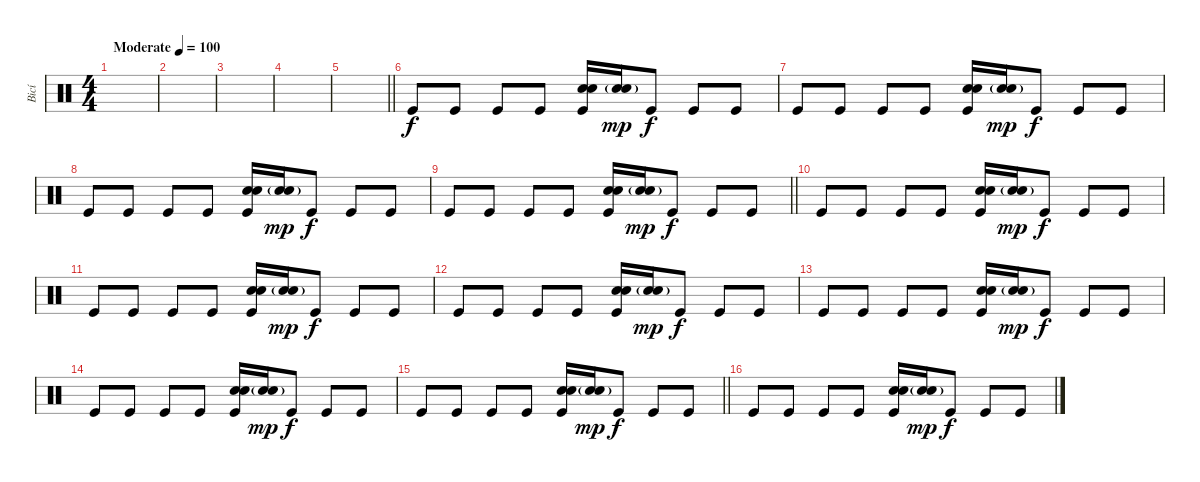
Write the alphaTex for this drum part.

\track ("Bicí" "Bicí") {instrument percussion}
\staff {score}
\articulation defaults
\ts (4 4)
\tempo (100 "Moderate")
\clef neutral
\ks c
|
|
|
|
\barLineRight lightlight
|
\section ("" "")
"Kick (hit)".8 "Kick (hit)".8 "Kick (hit)".8 "Kick (hit)".8 ("Hand Clap (hit)" "Electric Snare (hit)" "Kick (hit)").16 ("Hand Clap (hit)"{g} "Electric Snare (hit)"{g}).16{dy mp} "Kick (hit)".8{dy f} "Kick (hit)".8 "Kick (hit)".8 |
"Kick (hit)".8 "Kick (hit)".8 "Kick (hit)".8 "Kick (hit)".8 ("Hand Clap (hit)" "Electric Snare (hit)" "Kick (hit)").16 ("Hand Clap (hit)"{g} "Electric Snare (hit)"{g}).16{dy mp} "Kick (hit)".8{dy f} "Kick (hit)".8 "Kick (hit)".8 |
"Kick (hit)".8 "Kick (hit)".8 "Kick (hit)".8 "Kick (hit)".8 ("Hand Clap (hit)" "Electric Snare (hit)" "Kick (hit)").16 ("Hand Clap (hit)"{g} "Electric Snare (hit)"{g}).16{dy mp} "Kick (hit)".8{dy f} "Kick (hit)".8 "Kick (hit)".8 |
\barLineRight lightlight "Kick (hit)".8 "Kick (hit)".8 "Kick (hit)".8 "Kick (hit)".8
("Hand Clap (hit)" "Electric Snare (hit)" "Kick (hit)").16 ("Hand Clap (hit)"{g} "Electric Snare (hit)"{g}).16{dy mp} "Kick (hit)".8{dy f} "Kick (hit)".8 "Kick (hit)".8 |
\section ("" "")
"Kick (hit)".8 "Kick (hit)".8 "Kick (hit)".8 "Kick (hit)".8 ("Hand Clap (hit)" "Electric Snare (hit)" "Kick (hit)").16 ("Hand Clap (hit)"{g} "Electric Snare (hit)"{g}).16{dy mp} "Kick (hit)".8{dy f} "Kick (hit)".8 "Kick (hit)".8 |
"Kick (hit)".8 "Kick (hit)".8 "Kick (hit)".8 "Kick (hit)".8 ("Hand Clap (hit)" "Electric Snare (hit)" "Kick (hit)").16 ("Hand Clap (hit)"{g} "Electric Snare (hit)"{g}).16{dy mp} "Kick (hit)".8{dy f} "Kick (hit)".8 "Kick (hit)".8 |
"Kick (hit)".8 "Kick (hit)".8 "Kick (hit)".8 "Kick (hit)".8 ("Hand Clap (hit)" "Electric Snare (hit)" "Kick (hit)").16 ("Hand Clap (hit)"{g} "Electric Snare (hit)"{g}).16{dy mp} "Kick (hit)".8{dy f} "Kick (hit)".8 "Kick (hit)".8 |
"Kick (hit)".8 "Kick (hit)".8 "Kick (hit)".8 "Kick (hit)".8 ("Hand Clap (hit)" "Electric Snare (hit)" "Kick (hit)").16 ("Hand Clap (hit)"{g} "Electric Snare (hit)"{g}).16{dy mp} "Kick (hit)".8{dy f} "Kick (hit)".8 "Kick (hit)".8 |
"Kick (hit)".8 "Kick (hit)".8 "Kick (hit)".8 "Kick (hit)".8 ("Hand Clap (hit)" "Electric Snare (hit)" "Kick (hit)").16 ("Hand Clap (hit)"{g} "Electric Snare (hit)"{g}).16{dy mp} "Kick (hit)".8{dy f} "Kick (hit)".8 "Kick (hit)".8 |
\barLineRight lightlight "Kick (hit)".8 "Kick (hit)".8 "Kick (hit)".8 "Kick (hit)".8
("Hand Clap (hit)" "Electric Snare (hit)" "Kick (hit)").16 ("Hand Clap (hit)"{g} "Electric Snare (hit)"{g}).16{dy mp} "Kick (hit)".8{dy f} "Kick (hit)".8 "Kick (hit)".8 |
"Kick (hit)".8 "Kick (hit)".8 "Kick (hit)".8 "Kick (hit)".8 ("Hand Clap (hit)" "Electric Snare (hit)" "Kick (hit)").16 ("Hand Clap (hit)"{g} "Electric Snare (hit)"{g}).16{dy mp} "Kick (hit)".8{dy f} "Kick (hit)".8 "Kick (hit)".8
